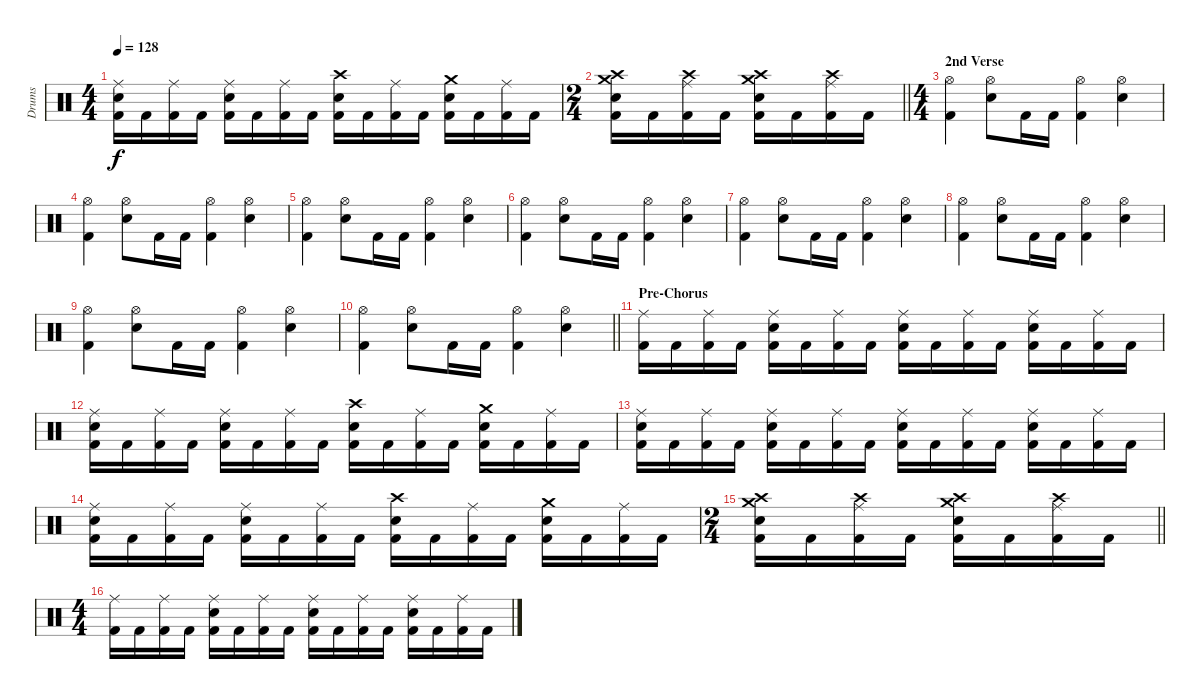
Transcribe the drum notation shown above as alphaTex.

\track ("Drums" "Drums") {instrument percussion}
\staff {score}
\articulation defaults
\ts (4 4)
\tempo 128
\clef neutral
\ks c
("Ride (middle)" "Snare (hit) 2" "Kick (hit) 2").16{dy f} "Kick (hit) 2".16 ("Ride (middle)" "Kick (hit) 2").16 "Kick (hit) 2".16 ("Ride (middle)" "Snare (hit) 2" "Kick (hit) 2").16 "Kick (hit) 2".16 ("Ride (middle)" "Kick (hit) 2").16 "Kick (hit) 2".16 ("Crash high (hit)" "Snare (hit) 2" "Kick (hit) 2").16 "Kick (hit) 2".16 ("Ride (middle)" "Kick (hit) 2").16 "Kick (hit) 2".16 ("Crash medium (hit)" "Snare (hit) 2" "Kick (hit) 2").16 "Kick (hit) 2".16 ("Ride (middle)" "Kick (hit) 2").16 "Kick (hit) 2".16 |
\ts (2 4)
\barLineRight lightlight
("Crash high (hit)" "Crash medium (hit)" "Snare (hit) 2" "Kick (hit) 2").16 "Kick (hit) 2".16 ("Ride (middle)" "Crash high (hit)" "Kick (hit) 2").16 "Kick (hit) 2".16 ("Crash medium (hit)" "Crash high (hit)" "Snare (hit) 2" "Kick (hit) 2").16 "Kick (hit) 2".16 ("Ride (middle)" "Crash high (hit)" "Kick (hit) 2").16 "Kick (hit) 2".16 |
\ts (4 4)
\section ("" "2nd Verse")
("Hi-Hat (open)" "Kick (hit) 2").4 ("Hi-Hat (open)" "Snare (hit) 2").8 "Kick (hit) 2".16 "Kick (hit) 2".16 ("Hi-Hat (open)" "Kick (hit) 2").4 ("Hi-Hat (open)" "Snare (hit) 2").4 |
("Hi-Hat (open)" "Kick (hit) 2").4 ("Hi-Hat (open)" "Snare (hit) 2").8 "Kick (hit) 2".16 "Kick (hit) 2".16 ("Hi-Hat (open)" "Kick (hit) 2").4 ("Hi-Hat (open)" "Snare (hit) 2").4 |
("Hi-Hat (open)" "Kick (hit) 2").4 ("Hi-Hat (open)" "Snare (hit) 2").8 "Kick (hit) 2".16 "Kick (hit) 2".16 ("Hi-Hat (open)" "Kick (hit) 2").4 ("Hi-Hat (open)" "Snare (hit) 2").4 |
("Hi-Hat (open)" "Kick (hit) 2").4 ("Hi-Hat (open)" "Snare (hit) 2").8 "Kick (hit) 2".16 "Kick (hit) 2".16 ("Hi-Hat (open)" "Kick (hit) 2").4 ("Hi-Hat (open)" "Snare (hit) 2").4 |
("Hi-Hat (open)" "Kick (hit) 2").4 ("Hi-Hat (open)" "Snare (hit) 2").8 "Kick (hit) 2".16 "Kick (hit) 2".16 ("Hi-Hat (open)" "Kick (hit) 2").4 ("Hi-Hat (open)" "Snare (hit) 2").4 |
("Hi-Hat (open)" "Kick (hit) 2").4 ("Hi-Hat (open)" "Snare (hit) 2").8 "Kick (hit) 2".16 "Kick (hit) 2".16 ("Hi-Hat (open)" "Kick (hit) 2").4 ("Hi-Hat (open)" "Snare (hit) 2").4 |
("Hi-Hat (open)" "Kick (hit) 2").4 ("Hi-Hat (open)" "Snare (hit) 2").8 "Kick (hit) 2".16 "Kick (hit) 2".16 ("Hi-Hat (open)" "Kick (hit) 2").4 ("Hi-Hat (open)" "Snare (hit) 2").4 |
\barLineRight lightlight
("Hi-Hat (open)" "Kick (hit) 2").4 ("Hi-Hat (open)" "Snare (hit) 2").8 "Kick (hit) 2".16 "Kick (hit) 2".16 ("Hi-Hat (open)" "Kick (hit) 2").4 ("Hi-Hat (open)" "Snare (hit) 2").4 |
\section ("" "Pre-Chorus")
("Ride (middle)" "Kick (hit) 2").16 "Kick (hit) 2".16 ("Ride (middle)" "Kick (hit) 2").16 "Kick (hit) 2".16 ("Ride (middle)" "Snare (hit) 2" "Kick (hit) 2").16 "Kick (hit) 2".16 ("Ride (middle)" "Kick (hit) 2").16 "Kick (hit) 2".16 ("Ride (middle)" "Snare (hit) 2" "Kick (hit) 2").16 "Kick (hit) 2".16 ("Ride (middle)" "Kick (hit) 2").16 "Kick (hit) 2".16 ("Ride (middle)" "Snare (hit) 2" "Kick (hit) 2").16 "Kick (hit) 2".16 ("Ride (middle)" "Kick (hit) 2").16 "Kick (hit) 2".16 |
("Ride (middle)" "Snare (hit) 2" "Kick (hit) 2").16 "Kick (hit) 2".16 ("Ride (middle)" "Kick (hit) 2").16 "Kick (hit) 2".16 ("Ride (middle)" "Snare (hit) 2" "Kick (hit) 2").16 "Kick (hit) 2".16 ("Ride (middle)" "Kick (hit) 2").16 "Kick (hit) 2".16 ("Crash high (hit)" "Snare (hit) 2" "Kick (hit) 2").16 "Kick (hit) 2".16 ("Ride (middle)" "Kick (hit) 2").16 "Kick (hit) 2".16 ("Crash medium (hit)" "Snare (hit) 2" "Kick (hit) 2").16 "Kick (hit) 2".16 ("Ride (middle)" "Kick (hit) 2").16 "Kick (hit) 2".16 |
("Ride (middle)" "Snare (hit) 2" "Kick (hit) 2").16 "Kick (hit) 2".16 ("Ride (middle)" "Kick (hit) 2").16 "Kick (hit) 2".16 ("Ride (middle)" "Snare (hit) 2" "Kick (hit) 2").16 "Kick (hit) 2".16 ("Ride (middle)" "Kick (hit) 2").16 "Kick (hit) 2".16 ("Ride (middle)" "Snare (hit) 2" "Kick (hit) 2").16 "Kick (hit) 2".16 ("Ride (middle)" "Kick (hit) 2").16 "Kick (hit) 2".16 ("Ride (middle)" "Snare (hit) 2" "Kick (hit) 2").16 "Kick (hit) 2".16 ("Ride (middle)" "Kick (hit) 2").16 "Kick (hit) 2".16 |
("Ride (middle)" "Snare (hit) 2" "Kick (hit) 2").16 "Kick (hit) 2".16 ("Ride (middle)" "Kick (hit) 2").16 "Kick (hit) 2".16 ("Ride (middle)" "Snare (hit) 2" "Kick (hit) 2").16 "Kick (hit) 2".16 ("Ride (middle)" "Kick (hit) 2").16 "Kick (hit) 2".16 ("Crash high (hit)" "Snare (hit) 2" "Kick (hit) 2").16 "Kick (hit) 2".16 ("Ride (middle)" "Kick (hit) 2").16 "Kick (hit) 2".16 ("Crash medium (hit)" "Snare (hit) 2" "Kick (hit) 2").16 "Kick (hit) 2".16 ("Ride (middle)" "Kick (hit) 2").16 "Kick (hit) 2".16 |
\ts (2 4)
\barLineRight lightlight
("Crash high (hit)" "Crash medium (hit)" "Snare (hit) 2" "Kick (hit) 2").16 "Kick (hit) 2".16 ("Ride (middle)" "Crash high (hit)" "Kick (hit) 2").16 "Kick (hit) 2".16 ("Crash medium (hit)" "Crash high (hit)" "Snare (hit) 2" "Kick (hit) 2").16 "Kick (hit) 2".16 ("Ride (middle)" "Crash high (hit)" "Kick (hit) 2").16 "Kick (hit) 2".16 |
\ts (4 4)
("Ride (middle)" "Kick (hit) 2").16 "Kick (hit) 2".16 ("Ride (middle)" "Kick (hit) 2").16 "Kick (hit) 2".16 ("Ride (middle)" "Snare (hit) 2" "Kick (hit) 2").16 "Kick (hit) 2".16 ("Ride (middle)" "Kick (hit) 2").16 "Kick (hit) 2".16 ("Ride (middle)" "Snare (hit) 2" "Kick (hit) 2").16 "Kick (hit) 2".16 ("Ride (middle)" "Kick (hit) 2").16 "Kick (hit) 2".16 ("Ride (middle)" "Snare (hit) 2" "Kick (hit) 2").16 "Kick (hit) 2".16 ("Ride (middle)" "Kick (hit) 2").16 "Kick (hit) 2".16
